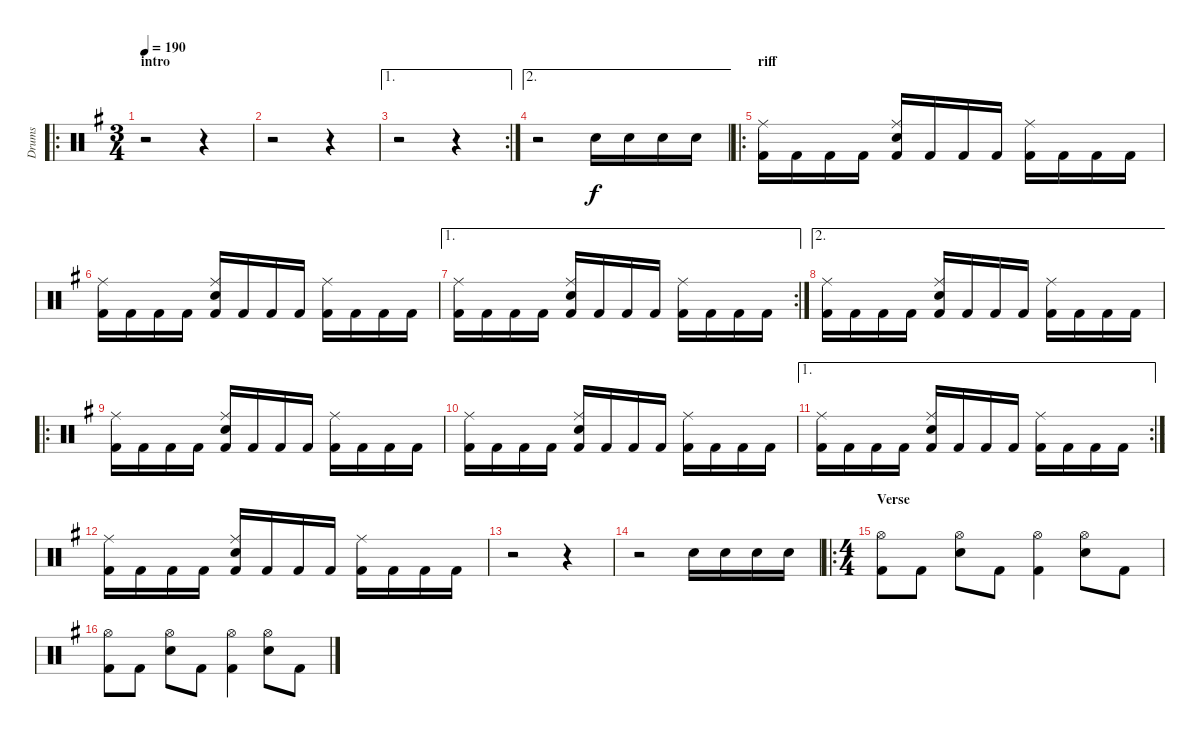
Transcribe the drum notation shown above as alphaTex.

\track ("Drums" "Drums") {instrument percussion}
\staff {score}
\articulation defaults
\ro
\ts (3 4)
\section ("" "intro")
\tempo 190
\clef neutral
\ks eminor
r.2{dy f} r.4 |
r.2 r.4 |
\ae 1
\rc 2
r.2 r.4 |
\ae 2
r.2 "Electric Snare (hit)".16 "Electric Snare (hit)".16 "Electric Snare (hit)".16 "Electric Snare (hit)".16 |
\ro
\section ("" "riff")
("Ride (middle)" "Kick (hit) 2").16 "Kick (hit) 2".16 "Kick (hit) 2".16 "Kick (hit) 2".16 ("Ride (middle)" "Electric Snare (hit)" "Kick (hit) 2").16 "Kick (hit) 2".16 "Kick (hit) 2".16 "Kick (hit) 2".16 ("Ride (middle)" "Kick (hit) 2").16 "Kick (hit) 2".16 "Kick (hit) 2".16 "Kick (hit) 2".16 |
("Ride (middle)" "Kick (hit) 2").16 "Kick (hit) 2".16 "Kick (hit) 2".16 "Kick (hit) 2".16 ("Ride (middle)" "Electric Snare (hit)" "Kick (hit) 2").16 "Kick (hit) 2".16 "Kick (hit) 2".16 "Kick (hit) 2".16 ("Ride (middle)" "Kick (hit) 2").16 "Kick (hit) 2".16 "Kick (hit) 2".16 "Kick (hit) 2".16 |
\ae 1
\rc 2
("Ride (middle)" "Kick (hit) 2").16 "Kick (hit) 2".16 "Kick (hit) 2".16 "Kick (hit) 2".16 ("Ride (middle)" "Electric Snare (hit)" "Kick (hit) 2").16 "Kick (hit) 2".16 "Kick (hit) 2".16 "Kick (hit) 2".16 ("Ride (middle)" "Kick (hit) 2").16 "Kick (hit) 2".16 "Kick (hit) 2".16 "Kick (hit) 2".16 |
\ae 2
("Ride (middle)" "Kick (hit) 2").16 "Kick (hit) 2".16 "Kick (hit) 2".16 "Kick (hit) 2".16 ("Ride (middle)" "Electric Snare (hit)" "Kick (hit) 2").16 "Kick (hit) 2".16 "Kick (hit) 2".16 "Kick (hit) 2".16 ("Ride (middle)" "Kick (hit) 2").16 "Kick (hit) 2".16 "Kick (hit) 2".16 "Kick (hit) 2".16 |
\ro
("Ride (middle)" "Kick (hit) 2").16 "Kick (hit) 2".16 "Kick (hit) 2".16 "Kick (hit) 2".16 ("Ride (middle)" "Electric Snare (hit)" "Kick (hit) 2").16 "Kick (hit) 2".16 "Kick (hit) 2".16 "Kick (hit) 2".16 ("Ride (middle)" "Kick (hit) 2").16 "Kick (hit) 2".16 "Kick (hit) 2".16 "Kick (hit) 2".16 |
("Ride (middle)" "Kick (hit) 2").16 "Kick (hit) 2".16 "Kick (hit) 2".16 "Kick (hit) 2".16 ("Ride (middle)" "Electric Snare (hit)" "Kick (hit) 2").16 "Kick (hit) 2".16 "Kick (hit) 2".16 "Kick (hit) 2".16 ("Ride (middle)" "Kick (hit) 2").16 "Kick (hit) 2".16 "Kick (hit) 2".16 "Kick (hit) 2".16 |
\ae 1
\rc 2
("Ride (middle)" "Kick (hit) 2").16 "Kick (hit) 2".16 "Kick (hit) 2".16 "Kick (hit) 2".16 ("Ride (middle)" "Electric Snare (hit)" "Kick (hit) 2").16 "Kick (hit) 2".16 "Kick (hit) 2".16 "Kick (hit) 2".16 ("Ride (middle)" "Kick (hit) 2").16 "Kick (hit) 2".16 "Kick (hit) 2".16 "Kick (hit) 2".16 |
("Ride (middle)" "Kick (hit) 2").16 "Kick (hit) 2".16 "Kick (hit) 2".16 "Kick (hit) 2".16 ("Ride (middle)" "Electric Snare (hit)" "Kick (hit) 2").16 "Kick (hit) 2".16 "Kick (hit) 2".16 "Kick (hit) 2".16 ("Ride (middle)" "Kick (hit) 2").16 "Kick (hit) 2".16 "Kick (hit) 2".16 "Kick (hit) 2".16 |
r.2 r.4 |
r.2 "Electric Snare (hit)".16 "Electric Snare (hit)".16 "Electric Snare (hit)".16 "Electric Snare (hit)".16 |
\ro
\ts (4 4)
\section ("" "Verse")
("Hi-Hat (open)" "Kick (hit) 2").8 "Kick (hit) 2".8 ("Hi-Hat (open)" "Electric Snare (hit)").8 "Kick (hit) 2".8 ("Hi-Hat (open)" "Kick (hit) 2").4 ("Hi-Hat (open)" "Electric Snare (hit)").8 "Kick (hit) 2".8 |
("Hi-Hat (open)" "Kick (hit) 2").8 "Kick (hit) 2".8 ("Hi-Hat (open)" "Electric Snare (hit)").8 "Kick (hit) 2".8 ("Hi-Hat (open)" "Kick (hit) 2").4 ("Hi-Hat (open)" "Electric Snare (hit)").8 "Kick (hit) 2".8
